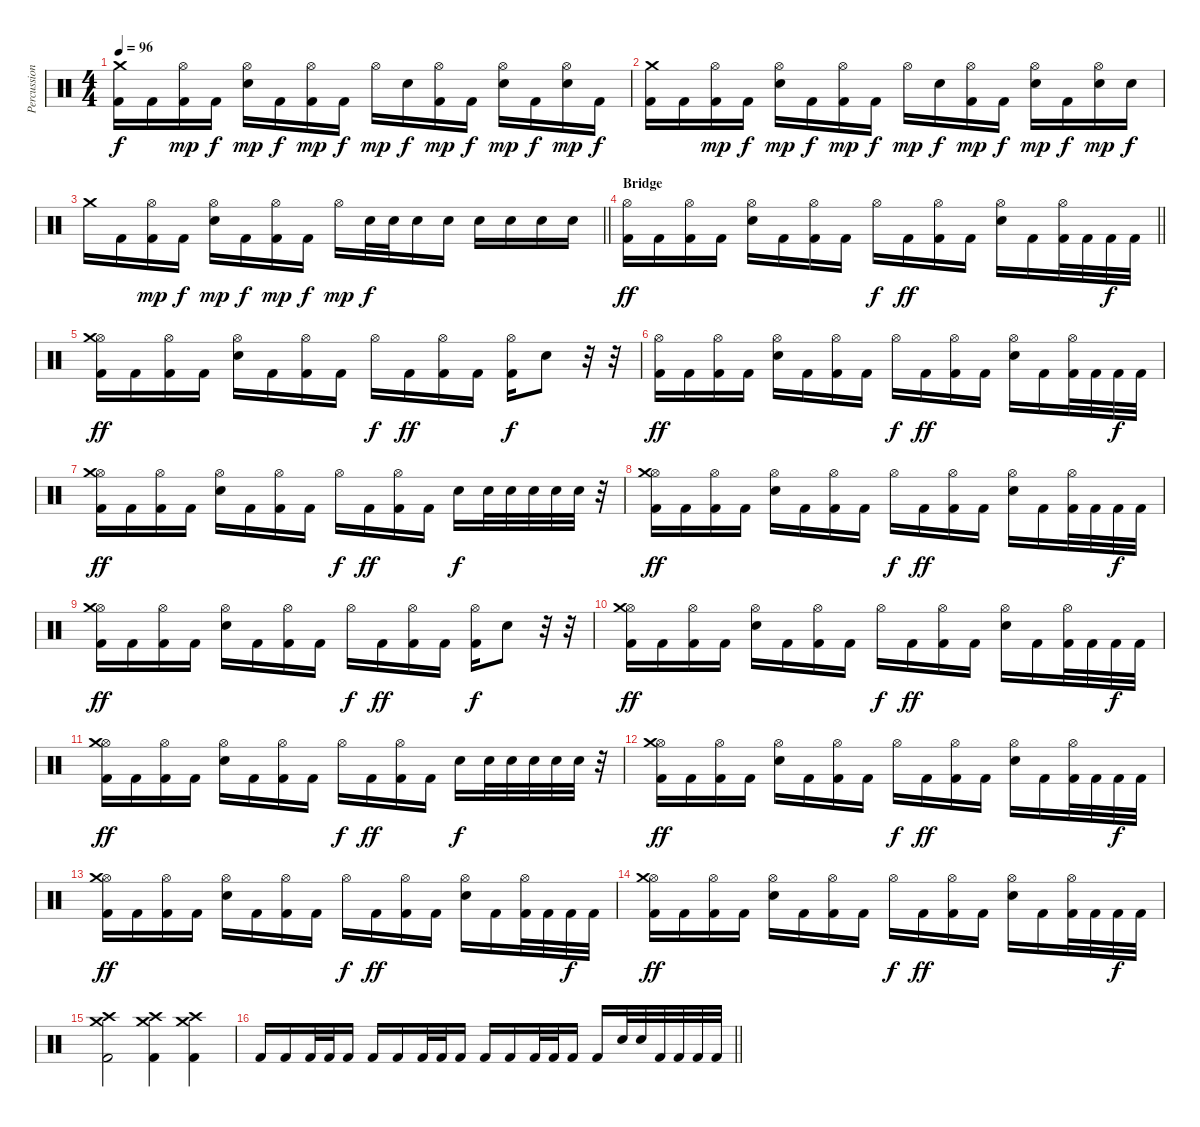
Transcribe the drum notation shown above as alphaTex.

\track ("Percussion" "Percussion") {instrument percussion}
\staff {score}
\articulation defaults
\ts (4 4)
\tempo 96
\clef neutral
\ks c
("Crash medium (hit)" "Kick (hit) 2").16{dy f} "Kick (hit) 2".16 ("Hi-Hat (open)" "Kick (hit) 2").16{dy mp} "Kick (hit) 2".16{dy f} ("Hi-Hat (open)" "Electric Snare (hit)").16{dy mp} "Kick (hit) 2".16{dy f} ("Hi-Hat (open)" "Kick (hit) 2").16{dy mp} "Kick (hit) 2".16{dy f} "Hi-Hat (open)".16{dy mp} "Electric Snare (hit)".16{dy f} ("Hi-Hat (open)" "Kick (hit) 2").16{dy mp} "Kick (hit) 2".16{dy f} ("Hi-Hat (open)" "Electric Snare (hit)").16{dy mp} "Kick (hit) 2".16{dy f} ("Hi-Hat (open)" "Electric Snare (hit)").16{dy mp} "Kick (hit) 2".16{dy f} |
("Crash medium (hit)" "Kick (hit) 2").16 "Kick (hit) 2".16 ("Hi-Hat (open)" "Kick (hit) 2").16{dy mp} "Kick (hit) 2".16{dy f} ("Hi-Hat (open)" "Electric Snare (hit)").16{dy mp} "Kick (hit) 2".16{dy f} ("Hi-Hat (open)" "Kick (hit) 2").16{dy mp} "Kick (hit) 2".16{dy f} "Hi-Hat (open)".16{dy mp} "Electric Snare (hit)".16{dy f} ("Hi-Hat (open)" "Kick (hit) 2").16{dy mp} "Kick (hit) 2".16{dy f} ("Hi-Hat (open)" "Electric Snare (hit)").16{dy mp} "Kick (hit) 2".16{dy f} ("Hi-Hat (open)" "Electric Snare (hit)").16{dy mp} "Electric Snare (hit)".16{dy f} |
\barLineRight lightlight "Crash medium (hit)".16 "Kick (hit) 2".16
("Hi-Hat (open)" "Kick (hit) 2").16{dy mp} "Kick (hit) 2".16{dy f} ("Hi-Hat (open)" "Electric Snare (hit)").16{dy mp} "Kick (hit) 2".16{dy f} ("Hi-Hat (open)" "Kick (hit) 2").16{dy mp} "Kick (hit) 2".16{dy f} "Hi-Hat (open)".16{dy mp} "Electric Snare (hit)".32{dy f} "Electric Snare (hit)".32 "Electric Snare (hit)".16 "Electric Snare (hit)".16 "Electric Snare (hit)".16 "Electric Snare (hit)".16 "Electric Snare (hit)".16 "Electric Snare (hit)".16 |
\section ("" "Bridge")
\barLineRight lightlight
("Hi-Hat (open)" "Kick (hit) 2").16{dy ff} "Kick (hit) 2".16 ("Hi-Hat (open)" "Kick (hit) 2").16 "Kick (hit) 2".16 ("Hi-Hat (open)" "Electric Snare (hit)").16 "Kick (hit) 2".16 ("Hi-Hat (open)" "Kick (hit) 2").16 "Kick (hit) 2".16 "Hi-Hat (open)".16{dy f} "Kick (hit) 2".16{dy ff} ("Hi-Hat (open)" "Kick (hit) 2").16 "Kick (hit) 2".16 ("Hi-Hat (open)" "Electric Snare (hit)").16 "Kick (hit) 2".16 ("Hi-Hat (open)" "Kick (hit) 2").32 "Kick (hit) 2".32 "Kick (hit) 2".32{dy f} "Kick (hit) 2".32 |
("Hi-Hat (open)" "Crash medium (hit)" "Kick (hit) 2").16{dy ff} "Kick (hit) 2".16 ("Hi-Hat (open)" "Kick (hit) 2").16 "Kick (hit) 2".16 ("Hi-Hat (open)" "Electric Snare (hit)").16 "Kick (hit) 2".16 ("Hi-Hat (open)" "Kick (hit) 2").16 "Kick (hit) 2".16 "Hi-Hat (open)".16{dy f} "Kick (hit) 2".16{dy ff} ("Hi-Hat (open)" "Kick (hit) 2").16 "Kick (hit) 2".16 ("Hi-Hat (open)" "Kick (hit) 2").16{dy f} "Electric Snare (hit)".8 r.32 r.32 |
("Hi-Hat (open)" "Kick (hit) 2").16{dy ff} "Kick (hit) 2".16 ("Hi-Hat (open)" "Kick (hit) 2").16 "Kick (hit) 2".16 ("Hi-Hat (open)" "Electric Snare (hit)").16 "Kick (hit) 2".16 ("Hi-Hat (open)" "Kick (hit) 2").16 "Kick (hit) 2".16 "Hi-Hat (open)".16{dy f} "Kick (hit) 2".16{dy ff} ("Hi-Hat (open)" "Kick (hit) 2").16 "Kick (hit) 2".16 ("Hi-Hat (open)" "Electric Snare (hit)").16 "Kick (hit) 2".16 ("Hi-Hat (open)" "Kick (hit) 2").32 "Kick (hit) 2".32 "Kick (hit) 2".32{dy f} "Kick (hit) 2".32 |
("Hi-Hat (open)" "Crash medium (hit)" "Kick (hit) 2").16{dy ff} "Kick (hit) 2".16 ("Hi-Hat (open)" "Kick (hit) 2").16 "Kick (hit) 2".16 ("Hi-Hat (open)" "Electric Snare (hit)").16 "Kick (hit) 2".16 ("Hi-Hat (open)" "Kick (hit) 2").16 "Kick (hit) 2".16 "Hi-Hat (open)".16{dy f} "Kick (hit) 2".16{dy ff} ("Hi-Hat (open)" "Kick (hit) 2").16 "Kick (hit) 2".16 "Electric Snare (hit)".16{dy f} "Electric Snare (hit)".32 "Electric Snare (hit)".32 "Electric Snare (hit)".32 "Electric Snare (hit)".32 "Electric Snare (hit)".32 r.32 |
("Hi-Hat (open)" "Crash medium (hit)" "Kick (hit) 2").16{dy ff} "Kick (hit) 2".16 ("Hi-Hat (open)" "Kick (hit) 2").16 "Kick (hit) 2".16 ("Hi-Hat (open)" "Electric Snare (hit)").16 "Kick (hit) 2".16 ("Hi-Hat (open)" "Kick (hit) 2").16 "Kick (hit) 2".16 "Hi-Hat (open)".16{dy f} "Kick (hit) 2".16{dy ff} ("Hi-Hat (open)" "Kick (hit) 2").16 "Kick (hit) 2".16 ("Hi-Hat (open)" "Electric Snare (hit)").16 "Kick (hit) 2".16 ("Hi-Hat (open)" "Kick (hit) 2").32 "Kick (hit) 2".32 "Kick (hit) 2".32{dy f} "Kick (hit) 2".32 |
("Hi-Hat (open)" "Crash medium (hit)" "Kick (hit) 2").16{dy ff} "Kick (hit) 2".16 ("Hi-Hat (open)" "Kick (hit) 2").16 "Kick (hit) 2".16 ("Hi-Hat (open)" "Electric Snare (hit)").16 "Kick (hit) 2".16 ("Hi-Hat (open)" "Kick (hit) 2").16 "Kick (hit) 2".16 "Hi-Hat (open)".16{dy f} "Kick (hit) 2".16{dy ff} ("Hi-Hat (open)" "Kick (hit) 2").16 "Kick (hit) 2".16 ("Hi-Hat (open)" "Kick (hit) 2").16{dy f} "Electric Snare (hit)".8 r.32 r.32 |
("Hi-Hat (open)" "Crash medium (hit)" "Kick (hit) 2").16{dy ff} "Kick (hit) 2".16 ("Hi-Hat (open)" "Kick (hit) 2").16 "Kick (hit) 2".16 ("Hi-Hat (open)" "Electric Snare (hit)").16 "Kick (hit) 2".16 ("Hi-Hat (open)" "Kick (hit) 2").16 "Kick (hit) 2".16 "Hi-Hat (open)".16{dy f} "Kick (hit) 2".16{dy ff} ("Hi-Hat (open)" "Kick (hit) 2").16 "Kick (hit) 2".16 ("Hi-Hat (open)" "Electric Snare (hit)").16 "Kick (hit) 2".16 ("Hi-Hat (open)" "Kick (hit) 2").32 "Kick (hit) 2".32 "Kick (hit) 2".32{dy f} "Kick (hit) 2".32 |
("Hi-Hat (open)" "Crash medium (hit)" "Kick (hit) 2").16{dy ff} "Kick (hit) 2".16 ("Hi-Hat (open)" "Kick (hit) 2").16 "Kick (hit) 2".16 ("Hi-Hat (open)" "Electric Snare (hit)").16 "Kick (hit) 2".16 ("Hi-Hat (open)" "Kick (hit) 2").16 "Kick (hit) 2".16 "Hi-Hat (open)".16{dy f} "Kick (hit) 2".16{dy ff} ("Hi-Hat (open)" "Kick (hit) 2").16 "Kick (hit) 2".16 "Electric Snare (hit)".16{dy f} "Electric Snare (hit)".32 "Electric Snare (hit)".32 "Electric Snare (hit)".32 "Electric Snare (hit)".32 "Electric Snare (hit)".32 r.32 |
("Hi-Hat (open)" "Crash medium (hit)" "Kick (hit) 2").16{dy ff} "Kick (hit) 2".16 ("Hi-Hat (open)" "Kick (hit) 2").16 "Kick (hit) 2".16 ("Hi-Hat (open)" "Electric Snare (hit)").16 "Kick (hit) 2".16 ("Hi-Hat (open)" "Kick (hit) 2").16 "Kick (hit) 2".16 "Hi-Hat (open)".16{dy f} "Kick (hit) 2".16{dy ff} ("Hi-Hat (open)" "Kick (hit) 2").16 "Kick (hit) 2".16 ("Hi-Hat (open)" "Electric Snare (hit)").16 "Kick (hit) 2".16 ("Hi-Hat (open)" "Kick (hit) 2").32 "Kick (hit) 2".32 "Kick (hit) 2".32{dy f} "Kick (hit) 2".32 |
("Hi-Hat (open)" "Crash medium (hit)" "Kick (hit) 2").16{dy ff} "Kick (hit) 2".16 ("Hi-Hat (open)" "Kick (hit) 2").16 "Kick (hit) 2".16 ("Hi-Hat (open)" "Electric Snare (hit)").16 "Kick (hit) 2".16 ("Hi-Hat (open)" "Kick (hit) 2").16 "Kick (hit) 2".16 "Hi-Hat (open)".16{dy f} "Kick (hit) 2".16{dy ff} ("Hi-Hat (open)" "Kick (hit) 2").16 "Kick (hit) 2".16 ("Hi-Hat (open)" "Electric Snare (hit)").16 "Kick (hit) 2".16 ("Hi-Hat (open)" "Kick (hit) 2").32 "Kick (hit) 2".32 "Kick (hit) 2".32{dy f} "Kick (hit) 2".32 |
("Hi-Hat (open)" "Crash medium (hit)" "Kick (hit) 2").16{dy ff} "Kick (hit) 2".16 ("Hi-Hat (open)" "Kick (hit) 2").16 "Kick (hit) 2".16 ("Hi-Hat (open)" "Electric Snare (hit)").16 "Kick (hit) 2".16 ("Hi-Hat (open)" "Kick (hit) 2").16 "Kick (hit) 2".16 "Hi-Hat (open)".16{dy f} "Kick (hit) 2".16{dy ff} ("Hi-Hat (open)" "Kick (hit) 2").16 "Kick (hit) 2".16 ("Hi-Hat (open)" "Electric Snare (hit)").16 "Kick (hit) 2".16 ("Hi-Hat (open)" "Kick (hit) 2").32 "Kick (hit) 2".32 "Kick (hit) 2".32{dy f} "Kick (hit) 2".32 |
("Crash medium (hit)" "Crash high (hit)" "Kick (hit) 2").2 ("Crash high (hit)" "Crash medium (hit)" "Kick (hit) 2").4 ("Crash medium (hit)" "Crash high (hit)" "Kick (hit) 2").4 |
\barLineRight lightlight "Kick (hit) 2".16 "Kick (hit) 2".16 "Kick (hit) 2".32 "Kick (hit) 2".32 "Kick (hit) 2".16 "Kick (hit) 2".16 "Kick (hit) 2".16 "Kick (hit) 2".32 "Kick (hit) 2".32 "Kick (hit) 2".16 "Kick (hit) 2".16 "Kick (hit) 2".16 "Kick (hit) 2".32 "Kick (hit) 2".32 "Kick (hit) 2".16 "Kick (hit) 2".16 "Electric Snare (hit)".32 "Electric Snare (hit)".32 "Kick (hit) 2".32 "Kick (hit) 2".32 "Kick (hit) 2".32 "Kick (hit) 2".32
